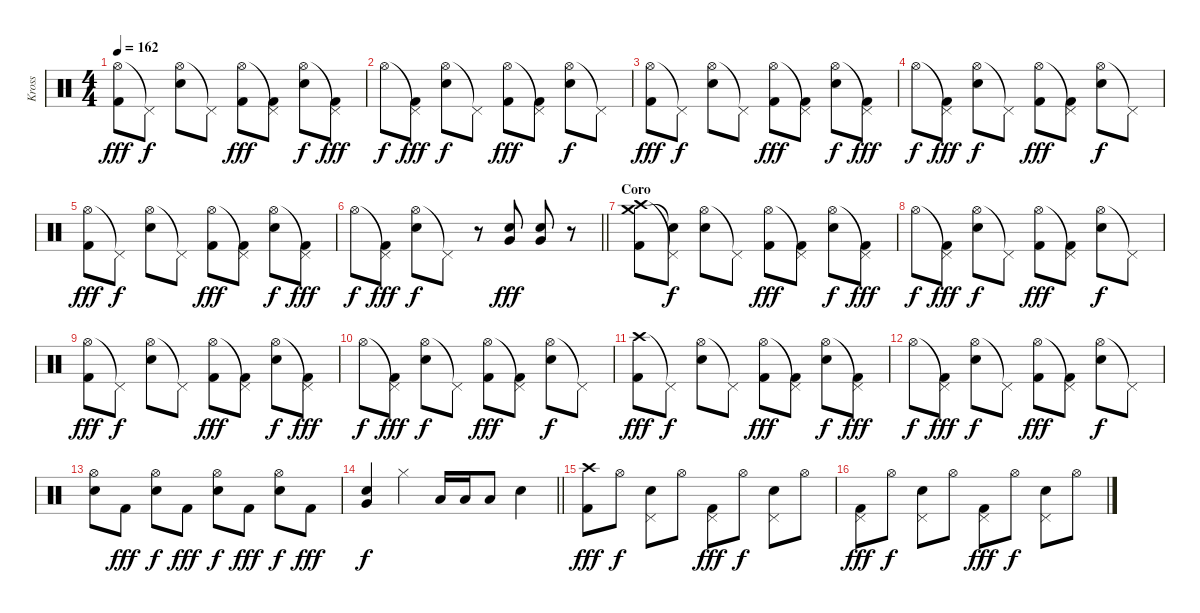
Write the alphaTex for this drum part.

\track ("Kross" "Kross") {instrument percussion}
\staff {score}
\articulation defaults
\ts (4 4)
\tempo 162
\clef neutral
\ks c
("Hi-Hat (open)" "Kick (hit) 2").8{dy fff} "Pedal Hi-Hat (hit)"{t}.8{dy f} ("Hi-Hat (open)" "Electric Snare (hit)").8 "Pedal Hi-Hat (hit)"{t}.8 ("Hi-Hat (open)" "Kick (hit) 2").8{dy fff} ("Pedal Hi-Hat (hit)"{t} "Kick (hit) 2").8 ("Hi-Hat (open)" "Electric Snare (hit)").8{dy f} ("Pedal Hi-Hat (hit)"{t} "Kick (hit) 2").8{dy fff} |
"Hi-Hat (open)".8{dy f} ("Pedal Hi-Hat (hit)"{t} "Kick (hit) 2").8{dy fff} ("Hi-Hat (open)" "Electric Snare (hit)").8{dy f} "Pedal Hi-Hat (hit)"{t}.8 ("Hi-Hat (open)" "Kick (hit) 2").8{dy fff} ("Pedal Hi-Hat (hit)"{t} "Kick (hit) 2").8 ("Hi-Hat (open)" "Electric Snare (hit)").8{dy f} "Pedal Hi-Hat (hit)"{t}.8 |
("Hi-Hat (open)" "Kick (hit) 2").8{dy fff} "Pedal Hi-Hat (hit)"{t}.8{dy f} ("Hi-Hat (open)" "Electric Snare (hit)").8 "Pedal Hi-Hat (hit)"{t}.8 ("Hi-Hat (open)" "Kick (hit) 2").8{dy fff} ("Pedal Hi-Hat (hit)"{t} "Kick (hit) 2").8 ("Hi-Hat (open)" "Electric Snare (hit)").8{dy f} ("Pedal Hi-Hat (hit)"{t} "Kick (hit) 2").8{dy fff} |
"Hi-Hat (open)".8{dy f} ("Pedal Hi-Hat (hit)"{t} "Kick (hit) 2").8{dy fff} ("Hi-Hat (open)" "Electric Snare (hit)").8{dy f} "Pedal Hi-Hat (hit)"{t}.8 ("Hi-Hat (open)" "Kick (hit) 2").8{dy fff} ("Pedal Hi-Hat (hit)"{t} "Kick (hit) 2").8 ("Hi-Hat (open)" "Electric Snare (hit)").8{dy f} "Pedal Hi-Hat (hit)"{t}.8 |
("Hi-Hat (open)" "Kick (hit) 2").8{dy fff} "Pedal Hi-Hat (hit)"{t}.8{dy f} ("Hi-Hat (open)" "Electric Snare (hit)").8 "Pedal Hi-Hat (hit)"{t}.8 ("Hi-Hat (open)" "Kick (hit) 2").8{dy fff} ("Pedal Hi-Hat (hit)"{t} "Kick (hit) 2").8 ("Hi-Hat (open)" "Electric Snare (hit)").8{dy f} ("Pedal Hi-Hat (hit)"{t} "Kick (hit) 2").8{dy fff} |
\barLineRight lightlight "Hi-Hat (open)".8{dy f}
("Pedal Hi-Hat (hit)"{t} "Kick (hit) 2").8{dy fff} ("Hi-Hat (open)" "Electric Snare (hit)").8{dy f} "Pedal Hi-Hat (hit)"{t}.8 r.8 ("Very Low Tom (hit)" "Electric Snare (hit)").8{dy fff} ("Very Low Tom (hit)" "Electric Snare (hit)").8 r.8 |
\section ("" "Coro")
("Crash high (hit)" "Crash medium (hit)" "Kick (hit) 2").8 ("Pedal Hi-Hat (hit)"{t} "Snare (hit)"{t}).8{dy f} ("Hi-Hat (open)" "Electric Snare (hit)").8 "Pedal Hi-Hat (hit)"{t}.8 ("Hi-Hat (open)" "Kick (hit) 2").8{dy fff} ("Pedal Hi-Hat (hit)"{t} "Kick (hit) 2").8 ("Hi-Hat (open)" "Electric Snare (hit)").8{dy f} ("Pedal Hi-Hat (hit)"{t} "Kick (hit) 2").8{dy fff} |
"Hi-Hat (open)".8{dy f} ("Pedal Hi-Hat (hit)"{t} "Kick (hit) 2").8{dy fff} ("Hi-Hat (open)" "Electric Snare (hit)").8{dy f} "Pedal Hi-Hat (hit)"{t}.8 ("Hi-Hat (open)" "Kick (hit) 2").8{dy fff} ("Pedal Hi-Hat (hit)"{t} "Kick (hit) 2").8 ("Hi-Hat (open)" "Electric Snare (hit)").8{dy f} "Pedal Hi-Hat (hit)"{t}.8 |
("Hi-Hat (open)" "Kick (hit) 2").8{dy fff} "Pedal Hi-Hat (hit)"{t}.8{dy f} ("Hi-Hat (open)" "Electric Snare (hit)").8 "Pedal Hi-Hat (hit)"{t}.8 ("Hi-Hat (open)" "Kick (hit) 2").8{dy fff} ("Pedal Hi-Hat (hit)"{t} "Kick (hit) 2").8 ("Hi-Hat (open)" "Electric Snare (hit)").8{dy f} ("Pedal Hi-Hat (hit)"{t} "Kick (hit) 2").8{dy fff} |
"Hi-Hat (open)".8{dy f} ("Pedal Hi-Hat (hit)"{t} "Kick (hit) 2").8{dy fff} ("Hi-Hat (open)" "Electric Snare (hit)").8{dy f} "Pedal Hi-Hat (hit)"{t}.8 ("Hi-Hat (open)" "Kick (hit) 2").8{dy fff} ("Pedal Hi-Hat (hit)"{t} "Kick (hit) 2").8 ("Hi-Hat (open)" "Electric Snare (hit)").8{dy f} "Pedal Hi-Hat (hit)"{t}.8 |
("Crash high (hit)" "Kick (hit) 2").8{dy fff} "Pedal Hi-Hat (hit)"{t}.8{dy f} ("Hi-Hat (open)" "Electric Snare (hit)").8 "Pedal Hi-Hat (hit)"{t}.8 ("Hi-Hat (open)" "Kick (hit) 2").8{dy fff} ("Pedal Hi-Hat (hit)"{t} "Kick (hit) 2").8 ("Hi-Hat (open)" "Electric Snare (hit)").8{dy f} ("Pedal Hi-Hat (hit)"{t} "Kick (hit) 2").8{dy fff} |
"Hi-Hat (open)".8{dy f} ("Pedal Hi-Hat (hit)"{t} "Kick (hit) 2").8{dy fff} ("Hi-Hat (open)" "Electric Snare (hit)").8{dy f} "Pedal Hi-Hat (hit)"{t}.8 ("Hi-Hat (open)" "Kick (hit) 2").8{dy fff} ("Pedal Hi-Hat (hit)"{t} "Kick (hit) 2").8 ("Hi-Hat (open)" "Electric Snare (hit)").8{dy f} "Pedal Hi-Hat (hit)"{t}.8 |
("Hi-Hat (open)" "Electric Snare (hit)").8 "Kick (hit) 2".8{dy fff} ("Hi-Hat (open)" "Electric Snare (hit)").8{dy f} "Kick (hit) 2".8{dy fff} ("Hi-Hat (open)" "Electric Snare (hit)").8{dy f} "Kick (hit) 2".8{dy fff} ("Hi-Hat (open)" "Electric Snare (hit)").8{dy f} "Kick (hit) 2".8{dy fff} |
\barLineRight lightlight
("Very Low Tom (hit)" "Electric Snare (hit)").4{dy f} "Hi-Hat (closed)".4 "Low Tom (hit)".16 "Low Tom (hit)".16 "Low Tom (hit)".8 "Electric Snare (hit)".4 |
("Crash high (hit)" "Kick (hit) 2").8{dy fff} "Hi-Hat (open)".8{dy f} ("Pedal Hi-Hat (hit)" "Electric Snare (hit)").8 "Hi-Hat (open)".8 ("Pedal Hi-Hat (hit)" "Kick (hit) 2").8{dy fff} "Hi-Hat (open)".8{dy f} ("Pedal Hi-Hat (hit)" "Electric Snare (hit)").8 "Hi-Hat (open)".8 |
("Pedal Hi-Hat (hit)" "Kick (hit) 2").8{dy fff} "Hi-Hat (open)".8{dy f} ("Pedal Hi-Hat (hit)" "Electric Snare (hit)").8 "Hi-Hat (open)".8 ("Pedal Hi-Hat (hit)" "Kick (hit) 2").8{dy fff} "Hi-Hat (open)".8{dy f} ("Pedal Hi-Hat (hit)" "Electric Snare (hit)").8 "Hi-Hat (open)".8
